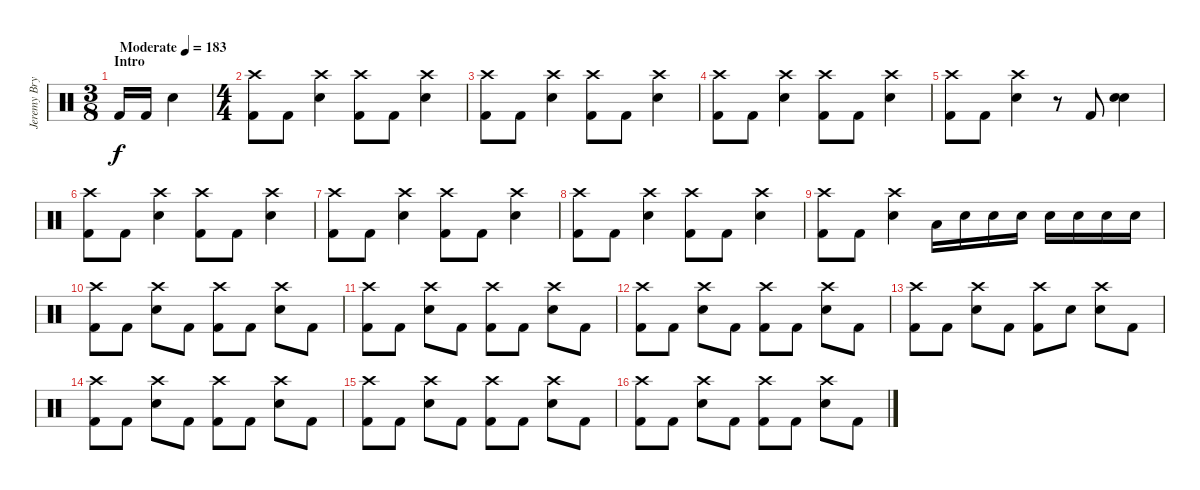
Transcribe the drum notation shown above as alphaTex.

\track ("Jeremy Bryan - Drums" "Jeremy Bry") {instrument percussion}
\staff {score}
\articulation defaults
\ts (3 8)
\section ("" "Intro")
\tempo (183 "Moderate")
\clef neutral
\ks c "Kick (hit) 2".16{dy f} "Kick (hit) 2".16 "Electric Snare (hit)".4
|
\ts (4 4)
("Crash high (hit)" "Kick (hit) 2").8 "Kick (hit) 2".8 ("Crash high (hit)" "Electric Snare (hit)").4 ("Crash high (hit)" "Kick (hit) 2").8 "Kick (hit) 2".8 ("Crash high (hit)" "Electric Snare (hit)").4 |
("Crash high (hit)" "Kick (hit) 2").8 "Kick (hit) 2".8 ("Crash high (hit)" "Electric Snare (hit)").4 ("Crash high (hit)" "Kick (hit) 2").8 "Kick (hit) 2".8 ("Crash high (hit)" "Electric Snare (hit)").4 |
("Crash high (hit)" "Kick (hit) 2").8 "Kick (hit) 2".8 ("Crash high (hit)" "Electric Snare (hit)").4 ("Crash high (hit)" "Kick (hit) 2").8 "Kick (hit) 2".8 ("Crash high (hit)" "Electric Snare (hit)").4 |
("Crash high (hit)" "Kick (hit) 2").8 "Kick (hit) 2".8 ("Crash high (hit)" "Electric Snare (hit)").4 r.8 "Kick (hit) 2".8 ("Electric Snare (hit)" "Electric Snare (hit)").4 |
("Crash high (hit)" "Kick (hit) 2").8 "Kick (hit) 2".8 ("Crash high (hit)" "Electric Snare (hit)").4 ("Crash high (hit)" "Kick (hit) 2").8 "Kick (hit) 2".8 ("Crash high (hit)" "Electric Snare (hit)").4 |
("Crash high (hit)" "Kick (hit) 2").8 "Kick (hit) 2".8 ("Crash high (hit)" "Electric Snare (hit)").4 ("Crash high (hit)" "Kick (hit) 2").8 "Kick (hit) 2".8 ("Crash high (hit)" "Electric Snare (hit)").4 |
("Crash high (hit)" "Kick (hit) 2").8 "Kick (hit) 2".8 ("Crash high (hit)" "Electric Snare (hit)").4 ("Crash high (hit)" "Kick (hit) 2").8 "Kick (hit) 2".8 ("Crash high (hit)" "Electric Snare (hit)").4 |
("Crash high (hit)" "Kick (hit) 2").8 "Kick (hit) 2".8 ("Crash high (hit)" "Electric Snare (hit)").4 "Low Tom (hit)".16 "Electric Snare (hit)".16 "Electric Snare (hit)".16 "Electric Snare (hit)".16 "Electric Snare (hit)".16 "Electric Snare (hit)".16 "Electric Snare (hit)".16 "Electric Snare (hit)".16 |
("Crash high (hit)" "Kick (hit) 2").8 "Kick (hit) 2".8 ("Crash high (hit)" "Electric Snare (hit)").8 "Kick (hit) 2".8 ("Crash high (hit)" "Kick (hit) 2").8 "Kick (hit) 2".8 ("Crash high (hit)" "Electric Snare (hit)").8 "Kick (hit) 2".8 |
("Crash high (hit)" "Kick (hit) 2").8 "Kick (hit) 2".8 ("Crash high (hit)" "Electric Snare (hit)").8 "Kick (hit) 2".8 ("Crash high (hit)" "Kick (hit) 2").8 "Kick (hit) 2".8 ("Crash high (hit)" "Electric Snare (hit)").8 "Kick (hit) 2".8 |
("Crash high (hit)" "Kick (hit) 2").8 "Kick (hit) 2".8 ("Crash high (hit)" "Electric Snare (hit)").8 "Kick (hit) 2".8 ("Crash high (hit)" "Kick (hit) 2").8 "Kick (hit) 2".8 ("Crash high (hit)" "Electric Snare (hit)").8 "Kick (hit) 2".8 |
("Crash high (hit)" "Kick (hit) 2").8 "Kick (hit) 2".8 ("Crash high (hit)" "Electric Snare (hit)").8 "Kick (hit) 2".8 ("Crash high (hit)" "Kick (hit) 2").8 "Electric Snare (hit)".8 ("Crash high (hit)" "Electric Snare (hit)").8 "Kick (hit) 2".8 |
("Crash high (hit)" "Kick (hit) 2").8 "Kick (hit) 2".8 ("Crash high (hit)" "Electric Snare (hit)").8 "Kick (hit) 2".8 ("Crash high (hit)" "Kick (hit) 2").8 "Kick (hit) 2".8 ("Crash high (hit)" "Electric Snare (hit)").8 "Kick (hit) 2".8 |
("Crash high (hit)" "Kick (hit) 2").8 "Kick (hit) 2".8 ("Crash high (hit)" "Electric Snare (hit)").8 "Kick (hit) 2".8 ("Crash high (hit)" "Kick (hit) 2").8 "Kick (hit) 2".8 ("Crash high (hit)" "Electric Snare (hit)").8 "Kick (hit) 2".8 |
("Crash high (hit)" "Kick (hit) 2").8 "Kick (hit) 2".8 ("Crash high (hit)" "Electric Snare (hit)").8 "Kick (hit) 2".8 ("Crash high (hit)" "Kick (hit) 2").8 "Kick (hit) 2".8 ("Crash high (hit)" "Electric Snare (hit)").8 "Kick (hit) 2".8
